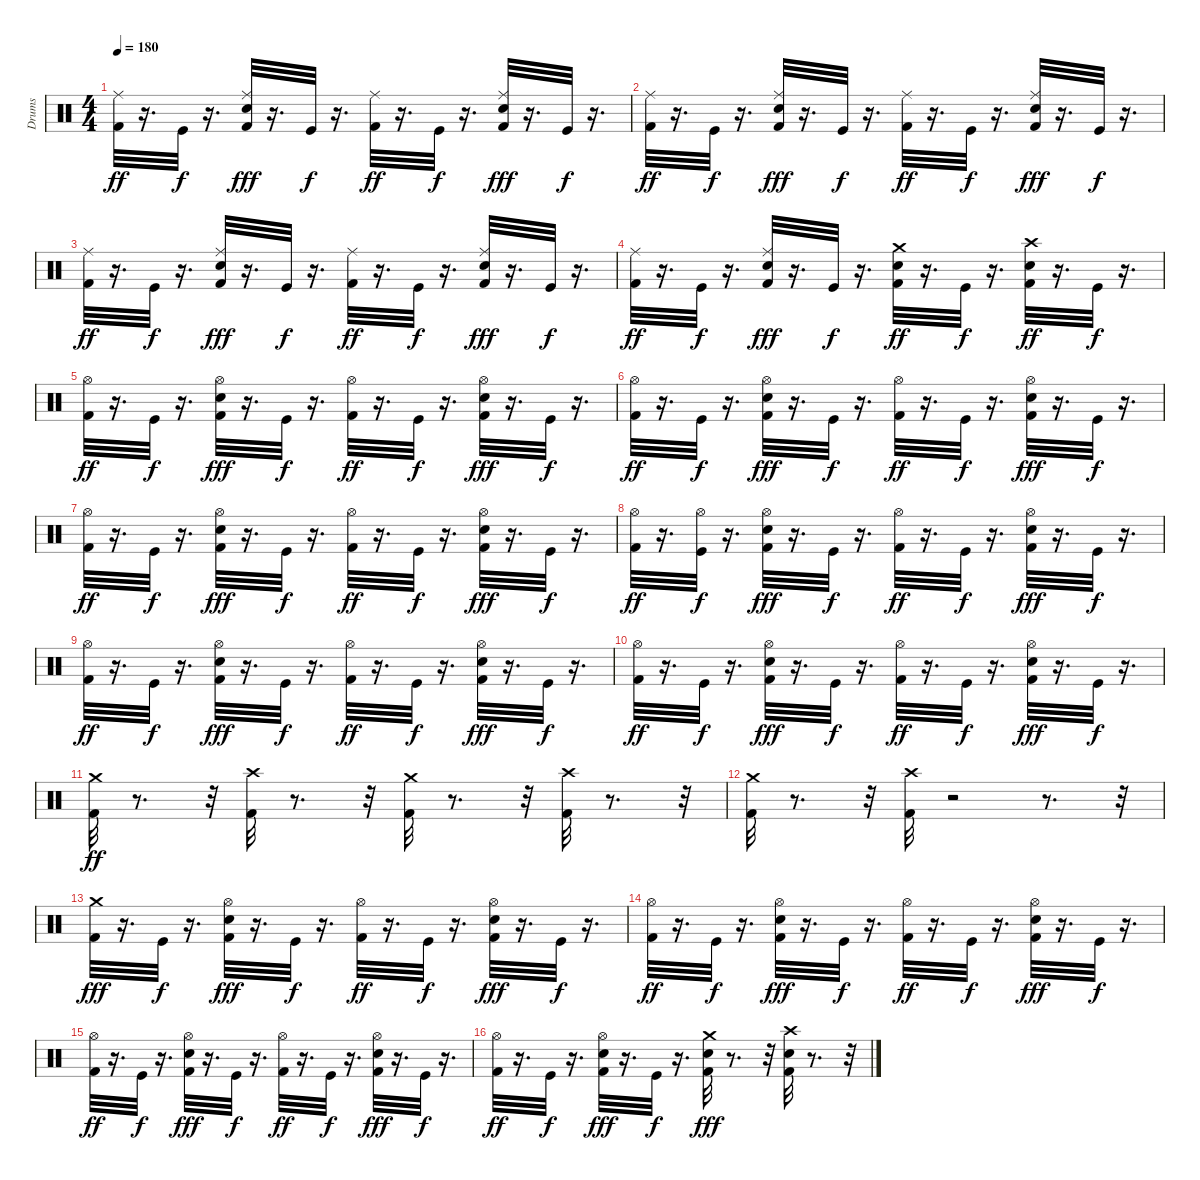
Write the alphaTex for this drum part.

\track ("Drums" "Drums") {instrument percussion}
\staff {score}
\articulation defaults
\ts (4 4)
\tempo 180
\clef neutral
\ks c
("Kick (hit) 2" "Ride (middle)").32{dy ff} r.16{d} "Kick (hit)".32{dy f} r.16{d} ("Snare (hit) 2" "Kick (hit) 2" "Ride (middle)").32{dy fff} r.16{d} "Kick (hit)".32{dy f} r.16{d} ("Kick (hit) 2" "Ride (middle)").32{dy ff} r.16{d} "Kick (hit)".32{dy f} r.16{d} ("Snare (hit) 2" "Kick (hit) 2" "Ride (middle)").32{dy fff} r.16{d} "Kick (hit)".32{dy f} r.16{d} |
("Kick (hit) 2" "Ride (middle)").32{dy ff} r.16{d} "Kick (hit)".32{dy f} r.16{d} ("Snare (hit) 2" "Kick (hit) 2" "Ride (middle)").32{dy fff} r.16{d} "Kick (hit)".32{dy f} r.16{d} ("Kick (hit) 2" "Ride (middle)").32{dy ff} r.16{d} "Kick (hit)".32{dy f} r.16{d} ("Snare (hit) 2" "Kick (hit) 2" "Ride (middle)").32{dy fff} r.16{d} "Kick (hit)".32{dy f} r.16{d} |
("Kick (hit) 2" "Ride (middle)").32{dy ff} r.16{d} "Kick (hit)".32{dy f} r.16{d} ("Snare (hit) 2" "Kick (hit) 2" "Ride (middle)").32{dy fff} r.16{d} "Kick (hit)".32{dy f} r.16{d} ("Kick (hit) 2" "Ride (middle)").32{dy ff} r.16{d} "Kick (hit)".32{dy f} r.16{d} ("Snare (hit) 2" "Kick (hit) 2" "Ride (middle)").32{dy fff} r.16{d} "Kick (hit)".32{dy f} r.16{d} |
("Kick (hit) 2" "Ride (middle)").32{dy ff} r.16{d} "Kick (hit)".32{dy f} r.16{d} ("Snare (hit) 2" "Kick (hit) 2" "Ride (middle)").32{dy fff} r.16{d} "Kick (hit)".32{dy f} r.16{d} ("Crash medium (hit)" "Snare (hit) 2" "Kick (hit) 2").32{dy ff} r.16{d} "Kick (hit)".32{dy f} r.16{d} ("Crash high (hit)" "Snare (hit) 2" "Kick (hit) 2").32{dy ff} r.16{d} "Kick (hit)".32{dy f} r.16{d} |
("Kick (hit) 2" "Hi-Hat (open)").32{dy ff} r.16{d} "Kick (hit)".32{dy f} r.16{d} ("Snare (hit) 2" "Kick (hit) 2" "Hi-Hat (open)").32{dy fff} r.16{d} "Kick (hit)".32{dy f} r.16{d} ("Kick (hit) 2" "Hi-Hat (open)").32{dy ff} r.16{d} "Kick (hit)".32{dy f} r.16{d} ("Snare (hit) 2" "Kick (hit) 2" "Hi-Hat (open)").32{dy fff} r.16{d} "Kick (hit)".32{dy f} r.16{d} |
("Kick (hit) 2" "Hi-Hat (open)").32{dy ff} r.16{d} "Kick (hit)".32{dy f} r.16{d} ("Snare (hit) 2" "Kick (hit) 2" "Hi-Hat (open)").32{dy fff} r.16{d} "Kick (hit)".32{dy f} r.16{d} ("Kick (hit) 2" "Hi-Hat (open)").32{dy ff} r.16{d} "Kick (hit)".32{dy f} r.16{d} ("Snare (hit) 2" "Kick (hit) 2" "Hi-Hat (open)").32{dy fff} r.16{d} "Kick (hit)".32{dy f} r.16{d} |
("Kick (hit) 2" "Hi-Hat (open)").32{dy ff} r.16{d} "Kick (hit)".32{dy f} r.16{d} ("Snare (hit) 2" "Kick (hit) 2" "Hi-Hat (open)").32{dy fff} r.16{d} "Kick (hit)".32{dy f} r.16{d} ("Kick (hit) 2" "Hi-Hat (open)").32{dy ff} r.16{d} "Kick (hit)".32{dy f} r.16{d} ("Snare (hit) 2" "Kick (hit) 2" "Hi-Hat (open)").32{dy fff} r.16{d} "Kick (hit)".32{dy f} r.16{d} |
("Kick (hit) 2" "Hi-Hat (open)").32{dy ff} r.16{d} ("Hi-Hat (open)" "Kick (hit)").32{dy f} r.16{d} ("Snare (hit) 2" "Kick (hit) 2" "Hi-Hat (open)").32{dy fff} r.16{d} "Kick (hit)".32{dy f} r.16{d} ("Kick (hit) 2" "Hi-Hat (open)").32{dy ff} r.16{d} "Kick (hit)".32{dy f} r.16{d} ("Snare (hit) 2" "Kick (hit) 2" "Hi-Hat (open)").32{dy fff} r.16{d} "Kick (hit)".32{dy f} r.16{d} |
("Kick (hit) 2" "Hi-Hat (open)").32{dy ff} r.16{d} "Kick (hit)".32{dy f} r.16{d} ("Snare (hit) 2" "Kick (hit) 2" "Hi-Hat (open)").32{dy fff} r.16{d} "Kick (hit)".32{dy f} r.16{d} ("Kick (hit) 2" "Hi-Hat (open)").32{dy ff} r.16{d} "Kick (hit)".32{dy f} r.16{d} ("Snare (hit) 2" "Kick (hit) 2" "Hi-Hat (open)").32{dy fff} r.16{d} "Kick (hit)".32{dy f} r.16{d} |
("Kick (hit) 2" "Hi-Hat (open)").32{dy ff} r.16{d} "Kick (hit)".32{dy f} r.16{d} ("Snare (hit) 2" "Kick (hit) 2" "Hi-Hat (open)").32{dy fff} r.16{d} "Kick (hit)".32{dy f} r.16{d} ("Kick (hit) 2" "Hi-Hat (open)").32{dy ff} r.16{d} "Kick (hit)".32{dy f} r.16{d} ("Snare (hit) 2" "Kick (hit) 2" "Hi-Hat (open)").32{dy fff} r.16{d} "Kick (hit)".32{dy f} r.16{d} |
("Crash medium (hit)" "Kick (hit) 2").32{dy ff} r.8{d} r.32 ("Crash high (hit)" "Kick (hit) 2").32 r.8{d} r.32 ("Crash medium (hit)" "Kick (hit) 2").32 r.8{d} r.32 ("Crash high (hit)" "Kick (hit) 2").32 r.8{d} r.32 |
("Crash medium (hit)" "Kick (hit) 2").32 r.8{d} r.32 ("Crash high (hit)" "Kick (hit) 2").32 r.2 r.8{d} r.32 |
("Kick (hit) 2" "Crash medium (hit)").32{dy fff} r.16{d} "Kick (hit)".32{dy f} r.16{d} ("Snare (hit) 2" "Kick (hit) 2" "Hi-Hat (open)").32{dy fff} r.16{d} "Kick (hit)".32{dy f} r.16{d} ("Kick (hit) 2" "Hi-Hat (open)").32{dy ff} r.16{d} "Kick (hit)".32{dy f} r.16{d} ("Snare (hit) 2" "Kick (hit) 2" "Hi-Hat (open)").32{dy fff} r.16{d} "Kick (hit)".32{dy f} r.16{d} |
("Kick (hit) 2" "Hi-Hat (open)").32{dy ff} r.16{d} "Kick (hit)".32{dy f} r.16{d} ("Snare (hit) 2" "Kick (hit) 2" "Hi-Hat (open)").32{dy fff} r.16{d} "Kick (hit)".32{dy f} r.16{d} ("Kick (hit) 2" "Hi-Hat (open)").32{dy ff} r.16{d} "Kick (hit)".32{dy f} r.16{d} ("Snare (hit) 2" "Kick (hit) 2" "Hi-Hat (open)").32{dy fff} r.16{d} "Kick (hit)".32{dy f} r.16{d} |
("Kick (hit) 2" "Hi-Hat (open)").32{dy ff} r.16{d} "Kick (hit)".32{dy f} r.16{d} ("Snare (hit) 2" "Kick (hit) 2" "Hi-Hat (open)").32{dy fff} r.16{d} "Kick (hit)".32{dy f} r.16{d} ("Kick (hit) 2" "Hi-Hat (open)").32{dy ff} r.16{d} "Kick (hit)".32{dy f} r.16{d} ("Snare (hit) 2" "Kick (hit) 2" "Hi-Hat (open)").32{dy fff} r.16{d} "Kick (hit)".32{dy f} r.16{d} |
("Kick (hit) 2" "Hi-Hat (open)").32{dy ff} r.16{d} "Kick (hit)".32{dy f} r.16{d} ("Snare (hit) 2" "Kick (hit) 2" "Hi-Hat (open)").32{dy fff} r.16{d} "Kick (hit)".32{dy f} r.16{d} ("Snare (hit) 2" "Kick (hit) 2" "Crash medium (hit)").32{dy fff} r.8{d} r.32 ("Snare (hit) 2" "Kick (hit) 2" "Crash high (hit)").32 r.8{d} r.32
